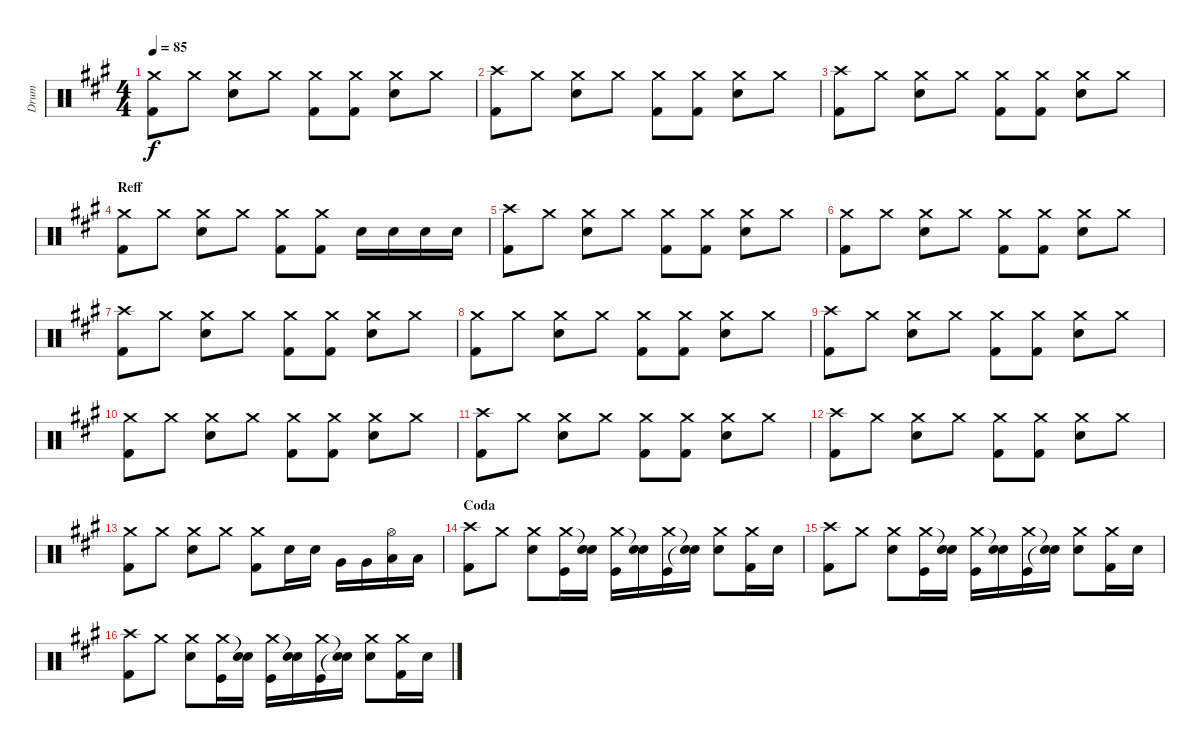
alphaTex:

\track ("Drum" "Drum") {instrument percussion}
\staff {score}
\articulation defaults
\ts (4 4)
\tempo 85
\clef neutral
\ks a
("Crash medium (hit)" "Kick (hit) 2").8{dy f} "Crash medium (hit)".8 ("Crash medium (hit)" "Snare (hit) 2").8 "Crash medium (hit)".8 ("Crash medium (hit)" "Kick (hit) 2").8 ("Crash medium (hit)" "Kick (hit) 2").8 ("Crash medium (hit)" "Snare (hit) 2").8 "Crash medium (hit)".8 |
("Crash high (hit)" "Kick (hit) 2").8 "Crash medium (hit)".8 ("Crash medium (hit)" "Snare (hit) 2").8 "Crash medium (hit)".8 ("Crash medium (hit)" "Kick (hit) 2").8 ("Crash medium (hit)" "Kick (hit) 2").8 ("Crash medium (hit)" "Snare (hit) 2").8 "Crash medium (hit)".8 |
("Crash high (hit)" "Kick (hit) 2").8 "Crash medium (hit)".8 ("Crash medium (hit)" "Snare (hit) 2").8 "Crash medium (hit)".8 ("Crash medium (hit)" "Kick (hit) 2").8 ("Crash medium (hit)" "Kick (hit) 2").8 ("Crash medium (hit)" "Snare (hit) 2").8 "Crash medium (hit)".8 |
\section ("" "Reff")
("Crash medium (hit)" "Kick (hit) 2").8 "Crash medium (hit)".8 ("Crash medium (hit)" "Snare (hit) 2").8 "Crash medium (hit)".8 ("Crash medium (hit)" "Kick (hit) 2").8 ("Crash medium (hit)" "Kick (hit) 2").8 "Snare (hit) 2".16 "Snare (hit) 2".16 "Snare (hit) 2".16 "Snare (hit) 2".16 |
("Crash high (hit)" "Kick (hit) 2").8 "Crash medium (hit)".8 ("Crash medium (hit)" "Snare (hit) 2").8 "Crash medium (hit)".8 ("Crash medium (hit)" "Kick (hit) 2").8 ("Crash medium (hit)" "Kick (hit) 2").8 ("Crash medium (hit)" "Snare (hit) 2").8 "Crash medium (hit)".8 |
("Crash medium (hit)" "Kick (hit) 2").8 "Crash medium (hit)".8 ("Crash medium (hit)" "Snare (hit) 2").8 "Crash medium (hit)".8 ("Crash medium (hit)" "Kick (hit) 2").8 ("Crash medium (hit)" "Kick (hit) 2").8 ("Crash medium (hit)" "Snare (hit) 2").8 "Crash medium (hit)".8 |
("Crash high (hit)" "Kick (hit) 2").8 "Crash medium (hit)".8 ("Snare (hit) 2" "Crash medium (hit)").8 "Crash medium (hit)".8 ("Kick (hit) 2" "Crash medium (hit)").8 ("Kick (hit) 2" "Crash medium (hit)").8 ("Snare (hit) 2" "Crash medium (hit)").8 "Crash medium (hit)".8 |
("Crash medium (hit)" "Kick (hit) 2").8 "Crash medium (hit)".8 ("Snare (hit) 2" "Crash medium (hit)").8 "Crash medium (hit)".8 ("Kick (hit) 2" "Crash medium (hit)").8 ("Kick (hit) 2" "Crash medium (hit)").8 ("Snare (hit) 2" "Crash medium (hit)").8 "Crash medium (hit)".8 |
("Crash high (hit)" "Kick (hit) 2").8 "Crash medium (hit)".8 ("Snare (hit) 2" "Crash medium (hit)").8 "Crash medium (hit)".8 ("Crash medium (hit)" "Kick (hit) 2").8 ("Crash medium (hit)" "Kick (hit) 2").8 ("Crash medium (hit)" "Snare (hit) 2").8 "Crash medium (hit)".8 |
("Crash medium (hit)" "Kick (hit) 2").8 "Crash medium (hit)".8 ("Crash medium (hit)" "Snare (hit) 2").8 "Crash medium (hit)".8 ("Crash medium (hit)" "Kick (hit) 2").8 ("Crash medium (hit)" "Kick (hit) 2").8 ("Crash medium (hit)" "Snare (hit) 2").8 "Crash medium (hit)".8 |
("Crash high (hit)" "Kick (hit) 2").8 "Crash medium (hit)".8 ("Crash medium (hit)" "Snare (hit) 2").8 "Crash medium (hit)".8 ("Crash medium (hit)" "Kick (hit) 2").8 ("Crash medium (hit)" "Kick (hit) 2").8 ("Crash medium (hit)" "Snare (hit) 2").8 "Crash medium (hit)".8 |
("Crash high (hit)" "Kick (hit) 2").8 "Crash medium (hit)".8 ("Crash medium (hit)" "Snare (hit) 2").8 "Crash medium (hit)".8 ("Crash medium (hit)" "Kick (hit) 2").8 ("Crash medium (hit)" "Kick (hit) 2").8 ("Crash medium (hit)" "Snare (hit) 2").8 "Crash medium (hit)".8 |
("Crash medium (hit)" "Kick (hit) 2").8 "Crash medium (hit)".8 ("Crash medium (hit)" "Snare (hit) 2").8 "Crash medium (hit)".8 ("Crash medium (hit)" "Kick (hit) 2").8 "Snare (hit) 2".16 "Snare (hit) 2".16 "Very Low Tom (hit)".16 "Very Low Tom (hit)".16 ("Hi-Hat (open)" "Low Floor Tom (hit)").16 "Low Floor Tom (hit)".16 |
\section ("" "Coda")
("Crash high (hit)" "Kick (hit) 2").8 "Crash medium (hit)".8 ("Crash medium (hit)" "Snare (hit) 2").8 ("Crash medium (hit)" "Kick (hit)").16 ("Snare (hit) 2"{t} "Snare (hit) 2").16 ("Crash medium (hit)" "Kick (hit)").16 ("Snare (hit) 2"{t} "Snare (hit) 2").16 ("Crash medium (hit)" "Kick (hit)").16 ("Snare (hit) 2"{t} "Snare (hit)"{t}).16 ("Crash medium (hit)" "Snare (hit) 2").8 ("Crash medium (hit)" "Kick (hit) 2").16 "Snare (hit) 2".16 |
("Crash high (hit)" "Kick (hit) 2").8 "Crash medium (hit)".8 ("Crash medium (hit)" "Snare (hit) 2").8 ("Crash medium (hit)" "Kick (hit)").16 ("Snare (hit) 2"{t} "Snare (hit) 2").16 ("Crash medium (hit)" "Kick (hit)").16 ("Snare (hit) 2"{t} "Snare (hit) 2").16 ("Crash medium (hit)" "Kick (hit)").16 ("Snare (hit) 2"{t} "Snare (hit)"{t}).16 ("Crash medium (hit)" "Snare (hit) 2").8 ("Crash medium (hit)" "Kick (hit) 2").16 "Snare (hit) 2".16 |
("Crash high (hit)" "Kick (hit) 2").8 "Crash medium (hit)".8 ("Crash medium (hit)" "Snare (hit) 2").8 ("Crash medium (hit)" "Kick (hit)").16 ("Snare (hit) 2"{t} "Snare (hit) 2").16 ("Crash medium (hit)" "Kick (hit)").16 ("Snare (hit) 2"{t} "Snare (hit) 2").16 ("Crash medium (hit)" "Kick (hit)").16 ("Snare (hit) 2"{t} "Snare (hit)"{t}).16 ("Crash medium (hit)" "Snare (hit) 2").8 ("Crash medium (hit)" "Kick (hit) 2").16 "Snare (hit) 2".16
